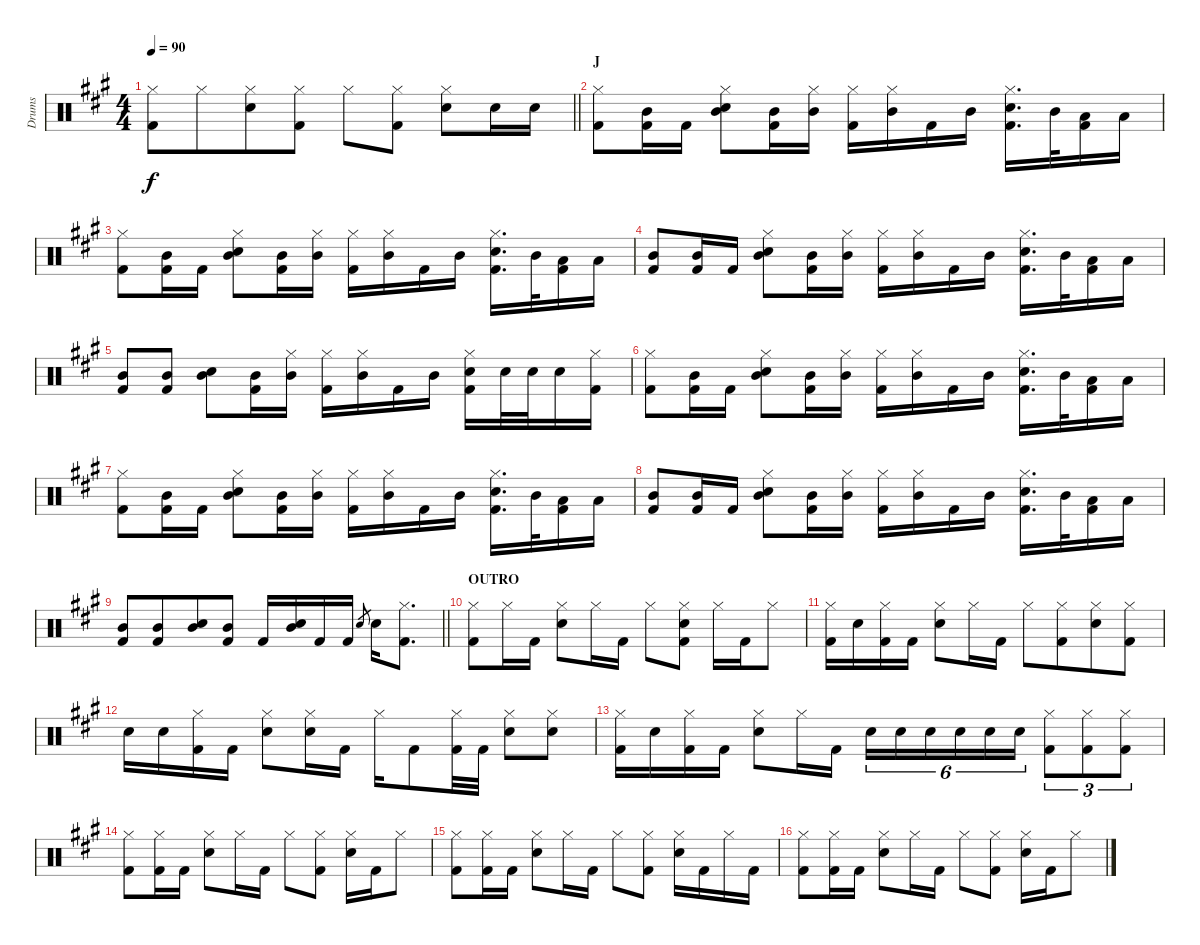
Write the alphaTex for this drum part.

\track ("Drums" "Drums") {instrument percussion}
\staff {score}
\articulation defaults
\ts (4 4)
\tempo 90
\clef neutral
\barLineRight lightlight
\ks f#minor
("Hi-Hat (closed)" "Kick (hit) 2").8{dy f} "Hi-Hat (closed)".8{beam merge} ("Hi-Hat (closed)" "Electric Snare (hit)").8 ("Hi-Hat (closed)" "Kick (hit) 2").8 "Hi-Hat (closed)".8 ("Hi-Hat (closed)" "Kick (hit) 2").8 ("Hi-Hat (closed)" "Electric Snare (hit)").8 "Electric Snare (hit)".16 "Electric Snare (hit)".16 |
\section ("" "J")
("Hi-Hat (closed)" "Kick (hit) 2").8 ("Mid Tom (hit)" "Kick (hit) 2").16 "Kick (hit) 2".16 ("Hi-Hat (closed)" "Mid Tom (hit)" "Electric Snare (hit)").8 ("Mid Tom (hit)" "Kick (hit) 2").16 ("Hi-Hat (closed)" "Mid Tom (hit)").16 ("Hi-Hat (closed)" "Kick (hit) 2").16 ("Hi-Hat (closed)" "Mid Tom (hit)").16 "Kick (hit) 2".16 "Mid Tom (hit)".16 ("Hi-Hat (closed)" "Electric Snare (hit)" "Kick (hit) 2").16{d} "Mid Tom (hit)".32{beam splitsecondary} ("Low Tom (hit)" "Kick (hit) 2").16 "Low Tom (hit)".16 |
("Hi-Hat (closed)" "Kick (hit) 2").8 ("Mid Tom (hit)" "Kick (hit) 2").16 "Kick (hit) 2".16 ("Hi-Hat (closed)" "Mid Tom (hit)" "Electric Snare (hit)").8 ("Mid Tom (hit)" "Kick (hit) 2").16 ("Hi-Hat (closed)" "Mid Tom (hit)").16 ("Hi-Hat (closed)" "Kick (hit) 2").16 ("Hi-Hat (closed)" "Mid Tom (hit)").16 "Kick (hit) 2".16 "Mid Tom (hit)".16 ("Hi-Hat (closed)" "Electric Snare (hit)" "Kick (hit) 2").16{d} "Mid Tom (hit)".32{beam splitsecondary} ("Low Tom (hit)" "Kick (hit) 2").16 "Low Tom (hit)".16 |
("Mid Tom (hit)" "Kick (hit) 2").8 ("Mid Tom (hit)" "Kick (hit) 2").16 "Kick (hit) 2".16 ("Hi-Hat (closed)" "Mid Tom (hit)" "Electric Snare (hit)").8 ("Mid Tom (hit)" "Kick (hit) 2").16 ("Hi-Hat (closed)" "Mid Tom (hit)").16 ("Hi-Hat (closed)" "Kick (hit) 2").16 ("Hi-Hat (closed)" "Mid Tom (hit)").16 "Kick (hit) 2".16 "Mid Tom (hit)".16 ("Hi-Hat (closed)" "Electric Snare (hit)" "Kick (hit) 2").16{d} "Mid Tom (hit)".32{beam splitsecondary} ("Low Tom (hit)" "Kick (hit) 2").16 "Low Tom (hit)".16 |
("Mid Tom (hit)" "Kick (hit) 2").8 ("Mid Tom (hit)" "Kick (hit) 2").8 ("Mid Tom (hit)" "Electric Snare (hit)").8 ("Mid Tom (hit)" "Kick (hit) 2").16 ("Hi-Hat (closed)" "Mid Tom (hit)").16 ("Hi-Hat (closed)" "Kick (hit) 2").16 ("Hi-Hat (closed)" "Mid Tom (hit)").16 "Kick (hit) 2".16 "Mid Tom (hit)".16 ("Hi-Hat (closed)" "Electric Snare (hit)" "Kick (hit) 2").16 "Electric Snare (hit)".32 "Electric Snare (hit)".32{beam splitsecondary} "Electric Snare (hit)".16 ("Hi-Hat (closed)" "Kick (hit) 2").16 |
("Hi-Hat (closed)" "Kick (hit) 2").8 ("Mid Tom (hit)" "Kick (hit) 2").16 "Kick (hit) 2".16 ("Hi-Hat (closed)" "Mid Tom (hit)" "Electric Snare (hit)").8 ("Mid Tom (hit)" "Kick (hit) 2").16 ("Hi-Hat (closed)" "Mid Tom (hit)").16 ("Hi-Hat (closed)" "Kick (hit) 2").16 ("Hi-Hat (closed)" "Mid Tom (hit)").16 "Kick (hit) 2".16 "Mid Tom (hit)".16 ("Hi-Hat (closed)" "Electric Snare (hit)" "Kick (hit) 2").16{d} "Mid Tom (hit)".32{beam splitsecondary} ("Low Tom (hit)" "Kick (hit) 2").16 "Low Tom (hit)".16 |
("Hi-Hat (closed)" "Kick (hit) 2").8 ("Mid Tom (hit)" "Kick (hit) 2").16 "Kick (hit) 2".16 ("Hi-Hat (closed)" "Mid Tom (hit)" "Electric Snare (hit)").8 ("Mid Tom (hit)" "Kick (hit) 2").16 ("Hi-Hat (closed)" "Mid Tom (hit)").16 ("Hi-Hat (closed)" "Kick (hit) 2").16 ("Hi-Hat (closed)" "Mid Tom (hit)").16 "Kick (hit) 2".16 "Mid Tom (hit)".16 ("Hi-Hat (closed)" "Electric Snare (hit)" "Kick (hit) 2").16{d} "Mid Tom (hit)".32{beam splitsecondary} ("Low Tom (hit)" "Kick (hit) 2").16 "Low Tom (hit)".16 |
("Mid Tom (hit)" "Kick (hit) 2").8 ("Mid Tom (hit)" "Kick (hit) 2").16 "Kick (hit) 2".16 ("Hi-Hat (closed)" "Mid Tom (hit)" "Electric Snare (hit)").8 ("Mid Tom (hit)" "Kick (hit) 2").16 ("Hi-Hat (closed)" "Mid Tom (hit)").16 ("Hi-Hat (closed)" "Kick (hit) 2").16 ("Hi-Hat (closed)" "Mid Tom (hit)").16 "Kick (hit) 2".16 "Mid Tom (hit)".16 ("Hi-Hat (closed)" "Electric Snare (hit)" "Kick (hit) 2").16{d} "Mid Tom (hit)".32{beam splitsecondary} ("Low Tom (hit)" "Kick (hit) 2").16 "Low Tom (hit)".16 |
\barLineRight lightlight
("Mid Tom (hit)" "Kick (hit) 2").8 ("Mid Tom (hit)" "Kick (hit) 2").8{beam merge} ("Mid Tom (hit)" "Electric Snare (hit)").8 ("Mid Tom (hit)" "Kick (hit) 2").8 "Kick (hit) 2".16 ("Mid Tom (hit)" "Electric Snare (hit)").16 "Kick (hit) 2".16 "Kick (hit) 2".16 "Electric Snare (hit)".8{gr} "Electric Snare (hit)".16 ("Hi-Hat (closed)" "Kick (hit) 2").8{d} |
\section ("" "OUTRO")
("Hi-Hat (closed)" "Kick (hit) 2").8 "Hi-Hat (closed)".16 "Kick (hit) 2".16{beam split} ("Hi-Hat (closed)" "Electric Snare (hit)").8 "Hi-Hat (closed)".16 "Kick (hit) 2".16 "Hi-Hat (closed)".8 ("Hi-Hat (closed)" "Electric Snare (hit)" "Kick (hit) 2").8 "Hi-Hat (closed)".16 "Kick (hit) 2".16 "Hi-Hat (closed)".8 |
("Hi-Hat (closed)" "Kick (hit) 2").16 "Electric Snare (hit)".16 ("Hi-Hat (closed)" "Kick (hit) 2").16 "Kick (hit) 2".16 ("Hi-Hat (closed)" "Electric Snare (hit)").8 "Hi-Hat (closed)".16 "Kick (hit) 2".16 "Hi-Hat (closed)".8 ("Hi-Hat (closed)" "Kick (hit) 2").8{beam merge} ("Hi-Hat (closed)" "Electric Snare (hit)").8 ("Hi-Hat (closed)" "Kick (hit) 2").8 |
"Electric Snare (hit)".16 "Electric Snare (hit)".16 ("Hi-Hat (closed)" "Kick (hit) 2").16 "Kick (hit) 2".16 ("Hi-Hat (closed)" "Electric Snare (hit)").8 ("Hi-Hat (closed)" "Electric Snare (hit)").16 "Kick (hit) 2".16 "Hi-Hat (closed)".16 "Kick (hit) 2".8 ("Hi-Hat (closed)" "Kick (hit) 2").32 "Kick (hit) 2".32 ("Hi-Hat (closed)" "Electric Snare (hit)").8 ("Hi-Hat (closed)" "Electric Snare (hit)").8 |
("Hi-Hat (closed)" "Kick (hit) 2").16 "Electric Snare (hit)".16 ("Hi-Hat (closed)" "Kick (hit) 2").16 "Kick (hit) 2".16 ("Hi-Hat (closed)" "Electric Snare (hit)").8 "Hi-Hat (closed)".16 "Kick (hit) 2".16 "Electric Snare (hit)".16{tu (6 4)} "Electric Snare (hit)".16{tu (6 4)} "Electric Snare (hit)".16{tu (6 4)} "Electric Snare (hit)".16{tu (6 4)} "Electric Snare (hit)".16{tu (6 4)} "Electric Snare (hit)".16{tu (6 4)} ("Hi-Hat (closed)" "Kick (hit) 2").8{tu (3 2) beam merge} ("Hi-Hat (closed)" "Kick (hit) 2").8{tu (3 2)} ("Hi-Hat (closed)" "Kick (hit) 2").8{tu (3 2)} |
("Hi-Hat (closed)" "Kick (hit) 2").8 ("Hi-Hat (closed)" "Kick (hit) 2").16 "Kick (hit) 2".16 ("Hi-Hat (closed)" "Electric Snare (hit)").8 "Hi-Hat (closed)".16 "Kick (hit) 2".16 "Hi-Hat (closed)".8 ("Hi-Hat (closed)" "Kick (hit) 2").8 ("Hi-Hat (closed)" "Electric Snare (hit)").16 "Kick (hit) 2".16 "Hi-Hat (closed)".8 |
("Hi-Hat (closed)" "Kick (hit) 2").8 ("Hi-Hat (closed)" "Kick (hit) 2").16 "Kick (hit) 2".16 ("Hi-Hat (closed)" "Electric Snare (hit)").8 "Hi-Hat (closed)".16 "Kick (hit) 2".16 "Hi-Hat (closed)".8 ("Hi-Hat (closed)" "Kick (hit) 2").8 ("Hi-Hat (closed)" "Electric Snare (hit)").16 "Kick (hit) 2".16 "Hi-Hat (closed)".16 "Kick (hit) 2".16 |
("Hi-Hat (closed)" "Kick (hit) 2").8 ("Hi-Hat (closed)" "Kick (hit) 2").16 "Kick (hit) 2".16 ("Hi-Hat (closed)" "Electric Snare (hit)").8 "Hi-Hat (closed)".16 "Kick (hit) 2".16 "Hi-Hat (closed)".8 ("Hi-Hat (closed)" "Kick (hit) 2").8 ("Hi-Hat (closed)" "Electric Snare (hit)").16 "Kick (hit) 2".16 "Hi-Hat (closed)".8
